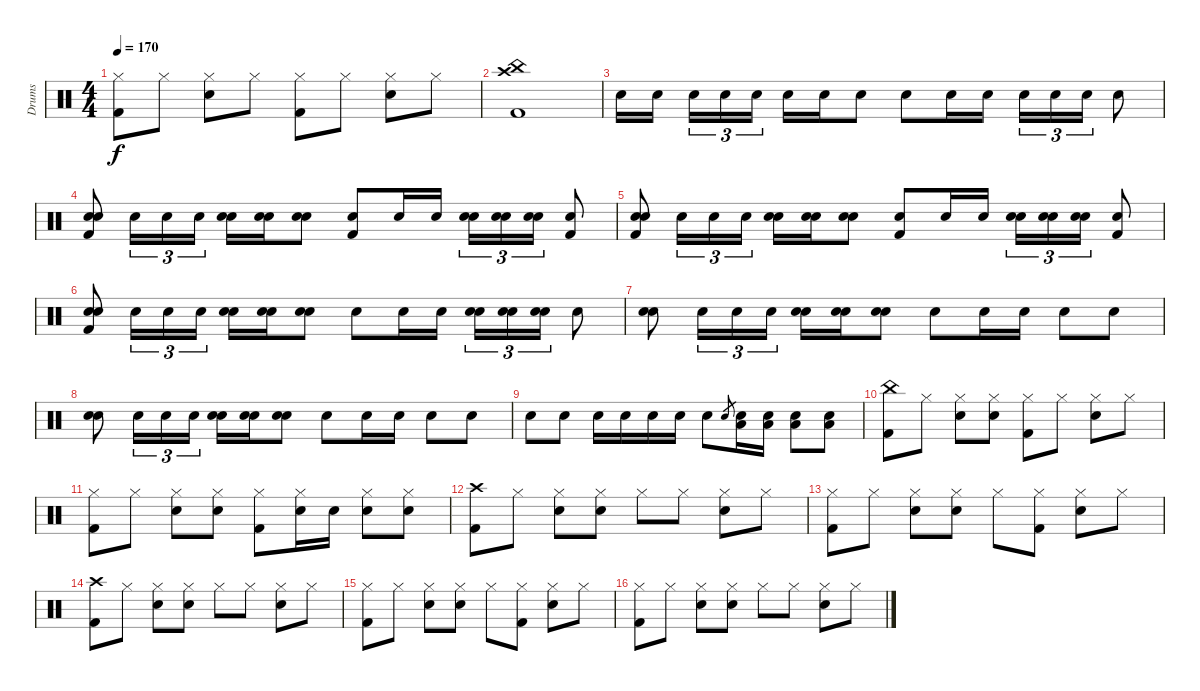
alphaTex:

\track ("Drums" "Drums") {instrument percussion}
\staff {score}
\articulation defaults
\ts (4 4)
\tempo 170
\clef neutral
\ks c
("Hi-Hat (closed)" "Kick (hit) 2").8{dy f} "Hi-Hat (closed)".8 ("Hi-Hat (closed)" "Electric Snare (hit)").8 "Hi-Hat (closed)".8 ("Hi-Hat (closed)" "Kick (hit) 2").8 "Hi-Hat (closed)".8 ("Hi-Hat (closed)" "Electric Snare (hit)").8 "Hi-Hat (closed)".8 |
("China (hit)" "Crash high (hit)" "Kick (hit) 2").1 |
"Electric Snare (hit)".16 "Electric Snare (hit)".16{beam splitsecondary} "Electric Snare (hit)".16{tu (3 2)} "Electric Snare (hit)".16{tu (3 2)} "Electric Snare (hit)".16{tu (3 2)} "Electric Snare (hit)".16 "Electric Snare (hit)".16 "Electric Snare (hit)".8 "Electric Snare (hit)".8 "Electric Snare (hit)".16 "Electric Snare (hit)".16 "Electric Snare (hit)".16{tu (3 2)} "Electric Snare (hit)".16{tu (3 2)} "Electric Snare (hit)".16{tu (3 2)} "Electric Snare (hit)".8 |
("Electric Snare (hit)" "Snare (hit)" "Kick (hit) 2").8{volume 8} "Electric Snare (hit)".16{tu (3 2)} "Electric Snare (hit)".16{tu (3 2)} "Electric Snare (hit)".16{tu (3 2)} ("Electric Snare (hit)" "Snare (hit)").16 ("Electric Snare (hit)" "Snare (hit)").16 ("Electric Snare (hit)" "Snare (hit)").8 ("Electric Snare (hit)" "Kick (hit) 2").8 "Electric Snare (hit)".16 "Electric Snare (hit)".16 ("Electric Snare (hit)" "Snare (hit)").16{tu (3 2)} ("Electric Snare (hit)" "Snare (hit)").16{tu (3 2)} ("Electric Snare (hit)" "Snare (hit)").16{tu (3 2)} ("Electric Snare (hit)" "Kick (hit) 2").8 |
("Electric Snare (hit)" "Snare (hit)" "Kick (hit) 2").8 "Electric Snare (hit)".16{tu (3 2)} "Electric Snare (hit)".16{tu (3 2)} "Electric Snare (hit)".16{tu (3 2)} ("Electric Snare (hit)" "Snare (hit)").16 ("Electric Snare (hit)" "Snare (hit)").16 ("Electric Snare (hit)" "Snare (hit)").8 ("Electric Snare (hit)" "Kick (hit) 2").8 "Electric Snare (hit)".16 "Electric Snare (hit)".16 ("Electric Snare (hit)" "Snare (hit)").16{tu (3 2)} ("Electric Snare (hit)" "Snare (hit)").16{tu (3 2)} ("Electric Snare (hit)" "Snare (hit)").16{tu (3 2)} ("Electric Snare (hit)" "Kick (hit) 2").8 |
("Electric Snare (hit)" "Snare (hit)" "Kick (hit) 2").8 "Electric Snare (hit)".16{tu (3 2)} "Electric Snare (hit)".16{tu (3 2)} "Electric Snare (hit)".16{tu (3 2)} ("Electric Snare (hit)" "Snare (hit)").16 ("Electric Snare (hit)" "Snare (hit)").16 ("Electric Snare (hit)" "Snare (hit)").8 "Electric Snare (hit)".8 "Electric Snare (hit)".16 "Electric Snare (hit)".16 ("Electric Snare (hit)" "Snare (hit)").16{tu (3 2)} ("Electric Snare (hit)" "Snare (hit)").16{tu (3 2)} ("Electric Snare (hit)" "Snare (hit)").16{tu (3 2)} "Electric Snare (hit)".8 |
("Electric Snare (hit)" "Snare (hit)").8 "Electric Snare (hit)".16{tu (3 2)} "Electric Snare (hit)".16{tu (3 2)} "Electric Snare (hit)".16{tu (3 2)} ("Electric Snare (hit)" "Snare (hit)").16 ("Electric Snare (hit)" "Snare (hit)").16 ("Electric Snare (hit)" "Snare (hit)").8 "Electric Snare (hit)".8 "Electric Snare (hit)".16 "Electric Snare (hit)".16 "Electric Snare (hit)".8 "Electric Snare (hit)".8 |
("Electric Snare (hit)" "Snare (hit)").8 "Electric Snare (hit)".16{tu (3 2)} "Electric Snare (hit)".16{tu (3 2)} "Electric Snare (hit)".16{tu (3 2)} ("Electric Snare (hit)" "Snare (hit)").16 ("Electric Snare (hit)" "Snare (hit)").16 ("Electric Snare (hit)" "Snare (hit)").8 "Electric Snare (hit)".8 "Electric Snare (hit)".16 "Electric Snare (hit)".16 "Electric Snare (hit)".8 "Electric Snare (hit)".8 |
"Electric Snare (hit)".8 "Electric Snare (hit)".8 "Electric Snare (hit)".16 "Electric Snare (hit)".16 "Electric Snare (hit)".16 "Electric Snare (hit)".16 "Electric Snare (hit)".8 "Electric Snare (hit)".8{gr} ("Electric Snare (hit)" "Low Floor Tom (hit)").16{volume 12} ("Electric Snare (hit)" "Low Tom (hit)").16 ("Electric Snare (hit)" "Low Floor Tom (hit)").8 ("Electric Snare (hit)" "Low Tom (hit)").8 |
("China (hit)" "Kick (hit) 2").8 "Hi-Hat (closed)".8 ("Hi-Hat (closed)" "Electric Snare (hit)").8 ("Hi-Hat (closed)" "Electric Snare (hit)").8 ("Hi-Hat (closed)" "Kick (hit) 2").8 "Hi-Hat (closed)".8 ("Hi-Hat (closed)" "Electric Snare (hit)").8 "Hi-Hat (closed)".8 |
("Hi-Hat (closed)" "Kick (hit) 2").8 "Hi-Hat (closed)".8 ("Hi-Hat (closed)" "Electric Snare (hit)").8 ("Hi-Hat (closed)" "Electric Snare (hit)").8 ("Hi-Hat (closed)" "Kick (hit) 2").8 ("Hi-Hat (closed)" "Electric Snare (hit)").16 "Electric Snare (hit)".16 ("Hi-Hat (closed)" "Electric Snare (hit)").8 ("Hi-Hat (closed)" "Electric Snare (hit)").8 |
("Crash high (hit)" "Kick (hit) 2").8 "Hi-Hat (closed)".8 ("Hi-Hat (closed)" "Electric Snare (hit)").8 ("Hi-Hat (closed)" "Electric Snare (hit)").8 "Hi-Hat (closed)".8 "Hi-Hat (closed)".8 ("Hi-Hat (closed)" "Electric Snare (hit)").8 "Hi-Hat (closed)".8 |
("Hi-Hat (closed)" "Kick (hit) 2").8 "Hi-Hat (closed)".8 ("Hi-Hat (closed)" "Electric Snare (hit)").8 ("Hi-Hat (closed)" "Electric Snare (hit)").8 "Hi-Hat (closed)".8 ("Hi-Hat (closed)" "Kick (hit) 2").8 ("Hi-Hat (closed)" "Electric Snare (hit)").8 "Hi-Hat (closed)".8 |
("Crash high (hit)" "Kick (hit) 2").8 "Hi-Hat (closed)".8 ("Hi-Hat (closed)" "Electric Snare (hit)").8 ("Hi-Hat (closed)" "Electric Snare (hit)").8 "Hi-Hat (closed)".8 "Hi-Hat (closed)".8 ("Hi-Hat (closed)" "Electric Snare (hit)").8 "Hi-Hat (closed)".8 |
("Hi-Hat (closed)" "Kick (hit) 2").8 "Hi-Hat (closed)".8 ("Hi-Hat (closed)" "Electric Snare (hit)").8 ("Hi-Hat (closed)" "Electric Snare (hit)").8 "Hi-Hat (closed)".8 ("Hi-Hat (closed)" "Kick (hit) 2").8 ("Hi-Hat (closed)" "Electric Snare (hit)").8 "Hi-Hat (closed)".8 |
("Hi-Hat (closed)" "Kick (hit) 2").8 "Hi-Hat (closed)".8 ("Hi-Hat (closed)" "Electric Snare (hit)").8 ("Hi-Hat (closed)" "Electric Snare (hit)").8 "Hi-Hat (closed)".8 "Hi-Hat (closed)".8 ("Hi-Hat (closed)" "Electric Snare (hit)").8 "Hi-Hat (closed)".8
